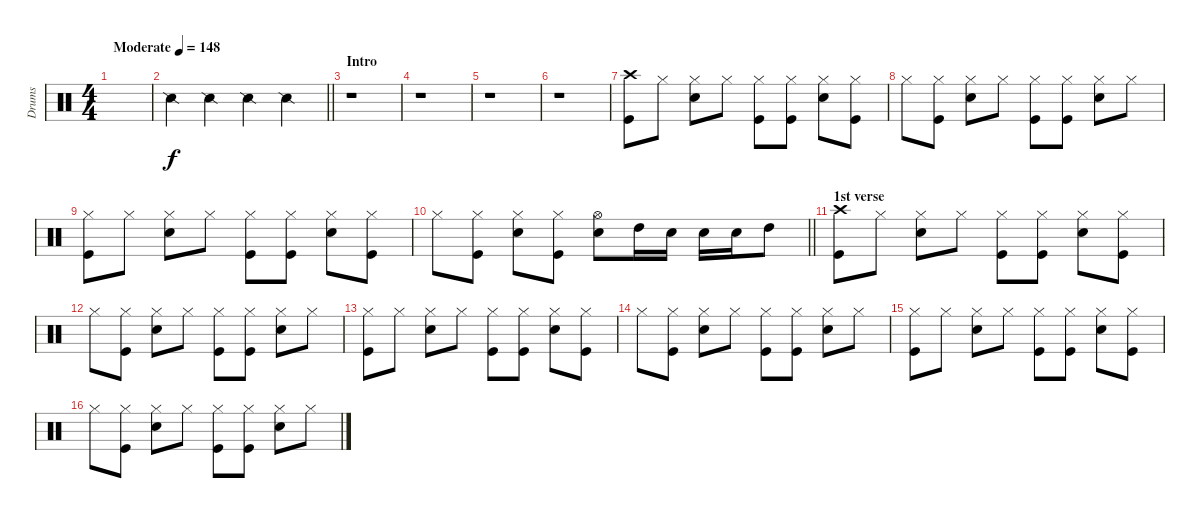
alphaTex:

\track ("Drums" "Drums") {instrument percussion}
\staff
\articulation defaults
\ts (4 4)
\tempo (148 "Moderate")
\clef neutral
\ks c
|
\barLineRight lightlight "Snare (side stick) 2".4 "Snare (side stick) 2".4 "Snare (side stick) 2".4 "Snare (side stick) 2".4
|
\section ("" "Intro")
r.1 |
r.1 |
r.1 |
r.1 |
("Crash high (hit)" "Kick (hit)").8 "Hi-Hat (closed)".8 ("Hi-Hat (closed)" "Snare (hit) 2").8 "Hi-Hat (closed)".8 ("Hi-Hat (closed)" "Kick (hit)").8 ("Hi-Hat (closed)" "Kick (hit)").8 ("Hi-Hat (closed)" "Snare (hit) 2").8 ("Hi-Hat (closed)" "Kick (hit)").8 |
"Hi-Hat (closed)".8 ("Hi-Hat (closed)" "Kick (hit)").8 ("Hi-Hat (closed)" "Snare (hit) 2").8 "Hi-Hat (closed)".8 ("Hi-Hat (closed)" "Kick (hit)").8 ("Hi-Hat (closed)" "Kick (hit)").8 ("Hi-Hat (closed)" "Snare (hit) 2").8 "Hi-Hat (closed)".8 |
("Hi-Hat (closed)" "Kick (hit)").8 "Hi-Hat (closed)".8 ("Hi-Hat (closed)" "Snare (hit) 2").8 "Hi-Hat (closed)".8 ("Hi-Hat (closed)" "Kick (hit)").8 ("Hi-Hat (closed)" "Kick (hit)").8 ("Hi-Hat (closed)" "Snare (hit) 2").8 ("Hi-Hat (closed)" "Kick (hit)").8 |
\barLineRight lightlight "Hi-Hat (closed)".8
("Hi-Hat (closed)" "Kick (hit)").8 ("Hi-Hat (closed)" "Snare (hit) 2").8 ("Hi-Hat (closed)" "Kick (hit)").8 ("Hi-Hat (open)" "Snare (hit) 2").8 "High Tom (hit)".16 "Snare (hit) 2".16 "Snare (hit) 2".16 "Snare (hit) 2".16 "High Tom (hit)".8 |
\section ("" "1st verse")
("Crash high (hit)" "Kick (hit)").8 "Hi-Hat (closed)".8 ("Hi-Hat (closed)" "Snare (hit) 2").8 "Hi-Hat (closed)".8 ("Hi-Hat (closed)" "Kick (hit)").8 ("Hi-Hat (closed)" "Kick (hit)").8 ("Hi-Hat (closed)" "Snare (hit) 2").8 ("Hi-Hat (closed)" "Kick (hit)").8 |
"Hi-Hat (closed)".8 ("Hi-Hat (closed)" "Kick (hit)").8 ("Hi-Hat (closed)" "Snare (hit) 2").8 "Hi-Hat (closed)".8 ("Hi-Hat (closed)" "Kick (hit)").8 ("Hi-Hat (closed)" "Kick (hit)").8 ("Hi-Hat (closed)" "Snare (hit) 2").8 "Hi-Hat (closed)".8 |
("Hi-Hat (closed)" "Kick (hit)").8 "Hi-Hat (closed)".8 ("Hi-Hat (closed)" "Snare (hit) 2").8 "Hi-Hat (closed)".8 ("Hi-Hat (closed)" "Kick (hit)").8 ("Hi-Hat (closed)" "Kick (hit)").8 ("Hi-Hat (closed)" "Snare (hit) 2").8 ("Hi-Hat (closed)" "Kick (hit)").8 |
"Hi-Hat (closed)".8 ("Hi-Hat (closed)" "Kick (hit)").8 ("Hi-Hat (closed)" "Snare (hit) 2").8 "Hi-Hat (closed)".8 ("Hi-Hat (closed)" "Kick (hit)").8 ("Hi-Hat (closed)" "Kick (hit)").8 ("Hi-Hat (closed)" "Snare (hit) 2").8 "Hi-Hat (closed)".8 |
("Hi-Hat (closed)" "Kick (hit)").8 "Hi-Hat (closed)".8 ("Hi-Hat (closed)" "Snare (hit) 2").8 "Hi-Hat (closed)".8 ("Hi-Hat (closed)" "Kick (hit)").8 ("Hi-Hat (closed)" "Kick (hit)").8 ("Hi-Hat (closed)" "Snare (hit) 2").8 ("Hi-Hat (closed)" "Kick (hit)").8 |
"Hi-Hat (closed)".8 ("Hi-Hat (closed)" "Kick (hit)").8 ("Hi-Hat (closed)" "Snare (hit) 2").8 "Hi-Hat (closed)".8 ("Hi-Hat (closed)" "Kick (hit)").8 ("Hi-Hat (closed)" "Kick (hit)").8 ("Hi-Hat (closed)" "Snare (hit) 2").8 "Hi-Hat (closed)".8
